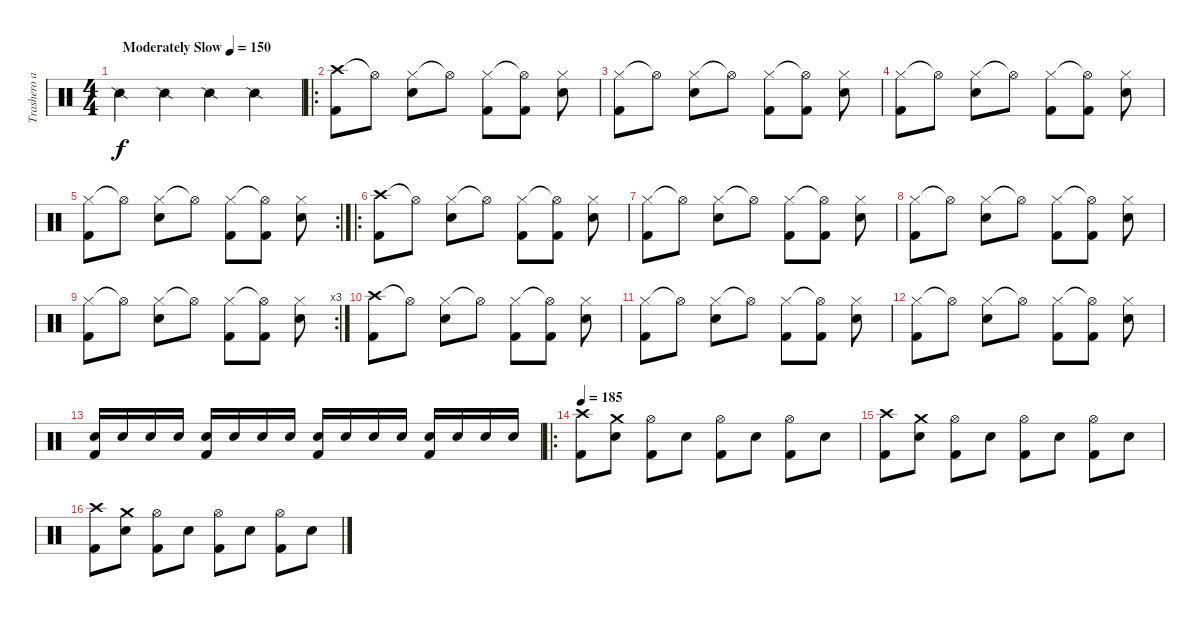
\track ("Trashero al peo" "Trashero a") {instrument percussion}
\staff {score}
\articulation defaults
\ts (4 4)
\tempo (150 "Moderately Slow")
\clef neutral
\ks c "Snare (side stick) 2".4{dy f} "Snare (side stick) 2".4 "Snare (side stick) 2".4 "Snare (side stick) 2".4
|
\ro
("Crash high (hit)" "Kick (hit) 2").8 "Hi-Hat (open)"{t}.8 ("Hi-Hat (closed)" "Snare (hit) 2").8 "Hi-Hat (open)"{t}.8 ("Hi-Hat (closed)" "Kick (hit) 2").8 ("Hi-Hat (open)"{t} "Kick (hit) 2").8 ("Hi-Hat (closed)" "Snare (hit) 2").8 |
("Hi-Hat (closed)" "Kick (hit) 2").8 "Hi-Hat (open)"{t}.8 ("Hi-Hat (closed)" "Snare (hit) 2").8 "Hi-Hat (open)"{t}.8 ("Hi-Hat (closed)" "Kick (hit) 2").8 ("Hi-Hat (open)"{t} "Kick (hit) 2").8 ("Hi-Hat (closed)" "Snare (hit) 2").8 |
("Hi-Hat (closed)" "Kick (hit) 2").8 "Hi-Hat (open)"{t}.8 ("Hi-Hat (closed)" "Snare (hit) 2").8 "Hi-Hat (open)"{t}.8 ("Hi-Hat (closed)" "Kick (hit) 2").8 ("Hi-Hat (open)"{t} "Kick (hit) 2").8 ("Hi-Hat (closed)" "Snare (hit) 2").8 |
\rc 2
("Hi-Hat (closed)" "Kick (hit) 2").8 "Hi-Hat (open)"{t}.8 ("Hi-Hat (closed)" "Snare (hit) 2").8 "Hi-Hat (open)"{t}.8 ("Hi-Hat (closed)" "Kick (hit) 2").8 ("Hi-Hat (open)"{t} "Kick (hit) 2").8 ("Hi-Hat (closed)" "Snare (hit) 2").8 |
\ro
("Crash high (hit)" "Kick (hit) 2").8 "Hi-Hat (open)"{t}.8 ("Hi-Hat (closed)" "Snare (hit) 2").8 "Hi-Hat (open)"{t}.8 ("Hi-Hat (closed)" "Kick (hit) 2").8 ("Hi-Hat (open)"{t} "Kick (hit) 2").8 ("Hi-Hat (closed)" "Snare (hit) 2").8 |
("Hi-Hat (closed)" "Kick (hit) 2").8 "Hi-Hat (open)"{t}.8 ("Hi-Hat (closed)" "Snare (hit) 2").8 "Hi-Hat (open)"{t}.8 ("Hi-Hat (closed)" "Kick (hit) 2").8 ("Hi-Hat (open)"{t} "Kick (hit) 2").8 ("Hi-Hat (closed)" "Snare (hit) 2").8 |
("Hi-Hat (closed)" "Kick (hit) 2").8 "Hi-Hat (open)"{t}.8 ("Hi-Hat (closed)" "Snare (hit) 2").8 "Hi-Hat (open)"{t}.8 ("Hi-Hat (closed)" "Kick (hit) 2").8 ("Hi-Hat (open)"{t} "Kick (hit) 2").8 ("Hi-Hat (closed)" "Snare (hit) 2").8 |
\rc 3
("Hi-Hat (closed)" "Kick (hit) 2").8 "Hi-Hat (open)"{t}.8 ("Hi-Hat (closed)" "Snare (hit) 2").8 "Hi-Hat (open)"{t}.8 ("Hi-Hat (closed)" "Kick (hit) 2").8 ("Hi-Hat (open)"{t} "Kick (hit) 2").8 ("Hi-Hat (closed)" "Snare (hit) 2").8 |
("Crash high (hit)" "Kick (hit) 2").8 "Hi-Hat (open)"{t}.8 ("Hi-Hat (closed)" "Snare (hit) 2").8 "Hi-Hat (open)"{t}.8 ("Hi-Hat (closed)" "Kick (hit) 2").8 ("Hi-Hat (open)"{t} "Kick (hit) 2").8 ("Hi-Hat (closed)" "Snare (hit) 2").8 |
("Hi-Hat (closed)" "Kick (hit) 2").8 "Hi-Hat (open)"{t}.8 ("Hi-Hat (closed)" "Snare (hit) 2").8 "Hi-Hat (open)"{t}.8 ("Hi-Hat (closed)" "Kick (hit) 2").8 ("Hi-Hat (open)"{t} "Kick (hit) 2").8 ("Hi-Hat (closed)" "Snare (hit) 2").8 |
("Hi-Hat (closed)" "Kick (hit) 2").8 "Hi-Hat (open)"{t}.8 ("Hi-Hat (closed)" "Snare (hit) 2").8 "Hi-Hat (open)"{t}.8 ("Hi-Hat (closed)" "Kick (hit) 2").8 ("Hi-Hat (open)"{t} "Kick (hit) 2").8 ("Hi-Hat (closed)" "Snare (hit) 2").8 |
("Kick (hit) 2" "Snare (hit) 2").16 "Snare (hit) 2".16 "Snare (hit) 2".16 "Snare (hit) 2".16 ("Kick (hit) 2" "Snare (hit) 2").16 "Snare (hit) 2".16 "Snare (hit) 2".16 "Snare (hit) 2".16 ("Kick (hit) 2" "Snare (hit) 2").16 "Snare (hit) 2".16 "Snare (hit) 2".16 "Snare (hit) 2".16 ("Kick (hit) 2" "Snare (hit) 2").16 "Snare (hit) 2".16 "Snare (hit) 2".16 "Snare (hit) 2".16 |
\ro
\tempo 185
("Crash high (hit)" "Kick (hit) 2").8 ("Crash medium (hit)" "Electric Snare (hit)").8 ("Kick (hit) 2" "Hi-Hat (open)").8 "Electric Snare (hit)".8 ("Kick (hit) 2" "Hi-Hat (open)").8 "Electric Snare (hit)".8 ("Kick (hit) 2" "Hi-Hat (open)").8 "Electric Snare (hit)".8 |
("Crash high (hit)" "Kick (hit) 2").8 ("Crash medium (hit)" "Electric Snare (hit)").8 ("Kick (hit) 2" "Hi-Hat (open)").8 "Electric Snare (hit)".8 ("Kick (hit) 2" "Hi-Hat (open)").8 "Electric Snare (hit)".8 ("Kick (hit) 2" "Hi-Hat (open)").8 "Electric Snare (hit)".8 |
("Crash high (hit)" "Kick (hit) 2").8 ("Crash medium (hit)" "Electric Snare (hit)").8 ("Kick (hit) 2" "Hi-Hat (open)").8 "Electric Snare (hit)".8 ("Kick (hit) 2" "Hi-Hat (open)").8 "Electric Snare (hit)".8 ("Kick (hit) 2" "Hi-Hat (open)").8 "Electric Snare (hit)".8
